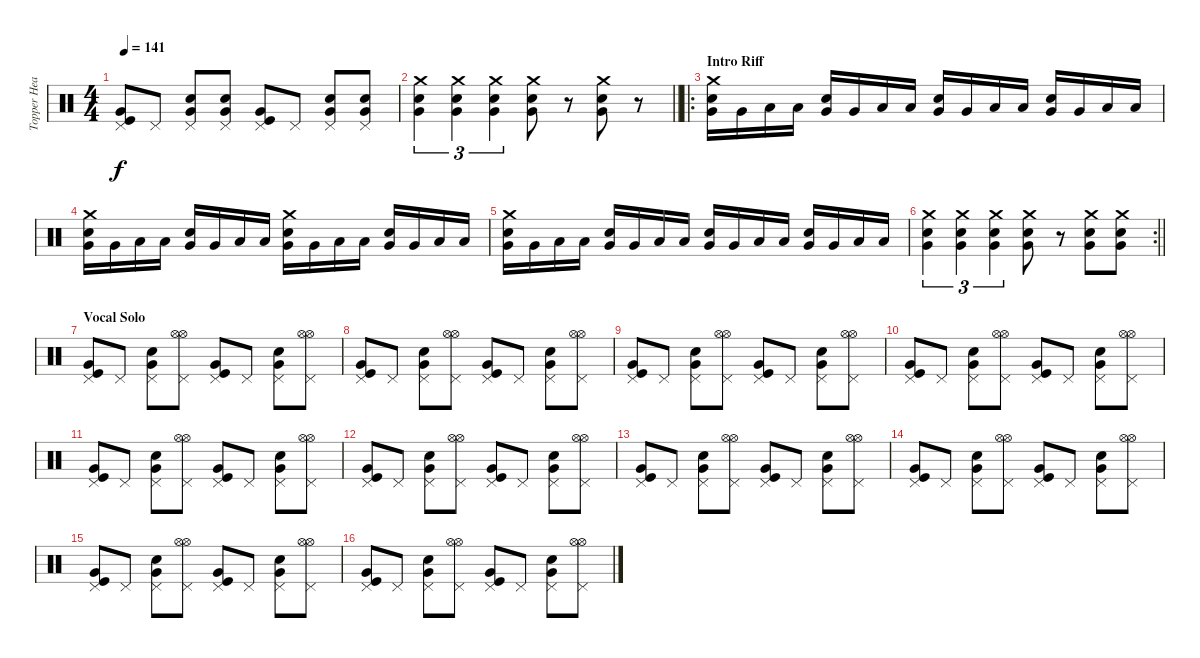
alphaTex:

\track ("Topper Headon - Drums" "Topper Hea") {instrument percussion}
\staff {score}
\articulation defaults
\ts (4 4)
\tempo 141
\clef neutral
\ks c
("Pedal Hi-Hat (hit)" "Very Low Tom (hit)" "Kick (hit)").8{dy f} "Pedal Hi-Hat (hit)".8 ("Pedal Hi-Hat (hit)" "Very Low Tom (hit)" "Snare (hit) 2").8 ("Pedal Hi-Hat (hit)" "Very Low Tom (hit)" "Snare (hit) 2").8 ("Pedal Hi-Hat (hit)" "Very Low Tom (hit)" "Kick (hit)").8 "Pedal Hi-Hat (hit)".8 ("Pedal Hi-Hat (hit)" "Very Low Tom (hit)" "Snare (hit) 2").8 ("Pedal Hi-Hat (hit)" "Very Low Tom (hit)" "Snare (hit) 2").8 |
\barLineRight lightlight
("Crash medium (hit)" "Snare (hit) 2" "Very Low Tom (hit)").4{tu (3 2)} ("Crash medium (hit)" "Snare (hit) 2" "Very Low Tom (hit)").4{tu (3 2)} ("Crash medium (hit)" "Snare (hit) 2" "Very Low Tom (hit)").4{tu (3 2)} ("Crash medium (hit)" "Snare (hit) 2" "Very Low Tom (hit)").8 r.8 ("Crash medium (hit)" "Snare (hit) 2" "Very Low Tom (hit)").8 r.8 |
\ro
\section ("" "Intro Riff")
("Crash medium (hit)" "Snare (hit) 2" "Very Low Tom (hit)").16 "Very Low Tom (hit)".16 "Low Floor Tom (hit)".16 "Low Floor Tom (hit)".16 ("Snare (hit) 2" "Very Low Tom (hit)").16 "Very Low Tom (hit)".16 "Low Floor Tom (hit)".16 "Low Floor Tom (hit)".16 ("Snare (hit) 2" "Very Low Tom (hit)").16 "Very Low Tom (hit)".16 "Low Floor Tom (hit)".16 "Low Floor Tom (hit)".16 ("Snare (hit) 2" "Very Low Tom (hit)").16 "Very Low Tom (hit)".16 "Low Floor Tom (hit)".16 "Low Floor Tom (hit)".16 |
("Crash medium (hit)" "Snare (hit) 2" "Very Low Tom (hit)").16 "Very Low Tom (hit)".16 "Low Floor Tom (hit)".16 "Low Floor Tom (hit)".16 ("Snare (hit) 2" "Very Low Tom (hit)").16 "Very Low Tom (hit)".16 "Low Floor Tom (hit)".16 "Low Floor Tom (hit)".16 ("Crash medium (hit)" "Snare (hit) 2" "Very Low Tom (hit)").16 "Very Low Tom (hit)".16 "Low Floor Tom (hit)".16 "Low Floor Tom (hit)".16 ("Snare (hit) 2" "Very Low Tom (hit)").16 "Very Low Tom (hit)".16 "Low Floor Tom (hit)".16 "Low Floor Tom (hit)".16 |
("Crash medium (hit)" "Snare (hit) 2" "Very Low Tom (hit)").16 "Very Low Tom (hit)".16 "Low Floor Tom (hit)".16 "Low Floor Tom (hit)".16 ("Snare (hit) 2" "Very Low Tom (hit)").16 "Very Low Tom (hit)".16 "Low Floor Tom (hit)".16 "Low Floor Tom (hit)".16 ("Snare (hit) 2" "Very Low Tom (hit)").16 "Very Low Tom (hit)".16 "Low Floor Tom (hit)".16 "Low Floor Tom (hit)".16 ("Snare (hit) 2" "Very Low Tom (hit)").16 "Very Low Tom (hit)".16 "Low Floor Tom (hit)".16 "Low Floor Tom (hit)".16 |
\rc 2
\barLineRight lightlight
("Crash medium (hit)" "Snare (hit) 2" "Very Low Tom (hit)").4{tu (3 2)} ("Crash medium (hit)" "Snare (hit) 2" "Very Low Tom (hit)").4{tu (3 2)} ("Crash medium (hit)" "Snare (hit) 2" "Very Low Tom (hit)").4{tu (3 2)} ("Crash medium (hit)" "Snare (hit) 2" "Very Low Tom (hit)").8 r.8 ("Crash medium (hit)" "Snare (hit) 2" "Very Low Tom (hit)").8 ("Crash medium (hit)" "Snare (hit) 2" "Very Low Tom (hit)").8 |
\section ("" "Vocal Solo")
("Pedal Hi-Hat (hit)" "Very Low Tom (hit)" "Kick (hit)").8 "Pedal Hi-Hat (hit)".8 ("Pedal Hi-Hat (hit)" "Very Low Tom (hit)" "Snare (hit) 2").8 ("Pedal Hi-Hat (hit)" "Hi-Hat (open)" "Hi-Hat (open)").8 ("Pedal Hi-Hat (hit)" "Very Low Tom (hit)" "Kick (hit)").8 "Pedal Hi-Hat (hit)".8 ("Pedal Hi-Hat (hit)" "Very Low Tom (hit)" "Snare (hit) 2").8 ("Pedal Hi-Hat (hit)" "Hi-Hat (open)" "Hi-Hat (open)").8 |
("Pedal Hi-Hat (hit)" "Very Low Tom (hit)" "Kick (hit)").8 "Pedal Hi-Hat (hit)".8 ("Pedal Hi-Hat (hit)" "Very Low Tom (hit)" "Snare (hit) 2").8 ("Pedal Hi-Hat (hit)" "Hi-Hat (open)" "Hi-Hat (open)").8 ("Pedal Hi-Hat (hit)" "Very Low Tom (hit)" "Kick (hit)").8 "Pedal Hi-Hat (hit)".8 ("Pedal Hi-Hat (hit)" "Very Low Tom (hit)" "Snare (hit) 2").8 ("Pedal Hi-Hat (hit)" "Hi-Hat (open)" "Hi-Hat (open)").8 |
("Pedal Hi-Hat (hit)" "Very Low Tom (hit)" "Kick (hit)").8 "Pedal Hi-Hat (hit)".8 ("Pedal Hi-Hat (hit)" "Very Low Tom (hit)" "Snare (hit) 2").8 ("Pedal Hi-Hat (hit)" "Hi-Hat (open)" "Hi-Hat (open)").8 ("Pedal Hi-Hat (hit)" "Very Low Tom (hit)" "Kick (hit)").8 "Pedal Hi-Hat (hit)".8 ("Pedal Hi-Hat (hit)" "Very Low Tom (hit)" "Snare (hit) 2").8 ("Pedal Hi-Hat (hit)" "Hi-Hat (open)" "Hi-Hat (open)").8 |
("Pedal Hi-Hat (hit)" "Very Low Tom (hit)" "Kick (hit)").8 "Pedal Hi-Hat (hit)".8 ("Pedal Hi-Hat (hit)" "Very Low Tom (hit)" "Snare (hit) 2").8 ("Pedal Hi-Hat (hit)" "Hi-Hat (open)" "Hi-Hat (open)").8 ("Pedal Hi-Hat (hit)" "Very Low Tom (hit)" "Kick (hit)").8 "Pedal Hi-Hat (hit)".8 ("Pedal Hi-Hat (hit)" "Very Low Tom (hit)" "Snare (hit) 2").8 ("Pedal Hi-Hat (hit)" "Hi-Hat (open)" "Hi-Hat (open)").8 |
("Pedal Hi-Hat (hit)" "Very Low Tom (hit)" "Kick (hit)").8 "Pedal Hi-Hat (hit)".8 ("Pedal Hi-Hat (hit)" "Very Low Tom (hit)" "Snare (hit) 2").8 ("Pedal Hi-Hat (hit)" "Hi-Hat (open)" "Hi-Hat (open)").8 ("Pedal Hi-Hat (hit)" "Very Low Tom (hit)" "Kick (hit)").8 "Pedal Hi-Hat (hit)".8 ("Pedal Hi-Hat (hit)" "Very Low Tom (hit)" "Snare (hit) 2").8 ("Pedal Hi-Hat (hit)" "Hi-Hat (open)" "Hi-Hat (open)").8 |
("Pedal Hi-Hat (hit)" "Very Low Tom (hit)" "Kick (hit)").8 "Pedal Hi-Hat (hit)".8 ("Pedal Hi-Hat (hit)" "Very Low Tom (hit)" "Snare (hit) 2").8 ("Pedal Hi-Hat (hit)" "Hi-Hat (open)" "Hi-Hat (open)").8 ("Pedal Hi-Hat (hit)" "Very Low Tom (hit)" "Kick (hit)").8 "Pedal Hi-Hat (hit)".8 ("Pedal Hi-Hat (hit)" "Very Low Tom (hit)" "Snare (hit) 2").8 ("Pedal Hi-Hat (hit)" "Hi-Hat (open)" "Hi-Hat (open)").8 |
("Pedal Hi-Hat (hit)" "Very Low Tom (hit)" "Kick (hit)").8 "Pedal Hi-Hat (hit)".8 ("Pedal Hi-Hat (hit)" "Very Low Tom (hit)" "Snare (hit) 2").8 ("Pedal Hi-Hat (hit)" "Hi-Hat (open)" "Hi-Hat (open)").8 ("Pedal Hi-Hat (hit)" "Very Low Tom (hit)" "Kick (hit)").8 "Pedal Hi-Hat (hit)".8 ("Pedal Hi-Hat (hit)" "Very Low Tom (hit)" "Snare (hit) 2").8 ("Pedal Hi-Hat (hit)" "Hi-Hat (open)" "Hi-Hat (open)").8 |
("Pedal Hi-Hat (hit)" "Very Low Tom (hit)" "Kick (hit)").8 "Pedal Hi-Hat (hit)".8 ("Pedal Hi-Hat (hit)" "Very Low Tom (hit)" "Snare (hit) 2").8 ("Pedal Hi-Hat (hit)" "Hi-Hat (open)" "Hi-Hat (open)").8 ("Pedal Hi-Hat (hit)" "Very Low Tom (hit)" "Kick (hit)").8 "Pedal Hi-Hat (hit)".8 ("Pedal Hi-Hat (hit)" "Very Low Tom (hit)" "Snare (hit) 2").8 ("Pedal Hi-Hat (hit)" "Hi-Hat (open)" "Hi-Hat (open)").8 |
("Pedal Hi-Hat (hit)" "Very Low Tom (hit)" "Kick (hit)").8 "Pedal Hi-Hat (hit)".8 ("Pedal Hi-Hat (hit)" "Very Low Tom (hit)" "Snare (hit) 2").8 ("Pedal Hi-Hat (hit)" "Hi-Hat (open)" "Hi-Hat (open)").8 ("Pedal Hi-Hat (hit)" "Very Low Tom (hit)" "Kick (hit)").8 "Pedal Hi-Hat (hit)".8 ("Pedal Hi-Hat (hit)" "Very Low Tom (hit)" "Snare (hit) 2").8 ("Pedal Hi-Hat (hit)" "Hi-Hat (open)" "Hi-Hat (open)").8 |
("Pedal Hi-Hat (hit)" "Very Low Tom (hit)" "Kick (hit)").8 "Pedal Hi-Hat (hit)".8 ("Pedal Hi-Hat (hit)" "Very Low Tom (hit)" "Snare (hit) 2").8 ("Pedal Hi-Hat (hit)" "Hi-Hat (open)" "Hi-Hat (open)").8 ("Pedal Hi-Hat (hit)" "Very Low Tom (hit)" "Kick (hit)").8 "Pedal Hi-Hat (hit)".8 ("Pedal Hi-Hat (hit)" "Very Low Tom (hit)" "Snare (hit) 2").8 ("Pedal Hi-Hat (hit)" "Hi-Hat (open)" "Hi-Hat (open)").8
